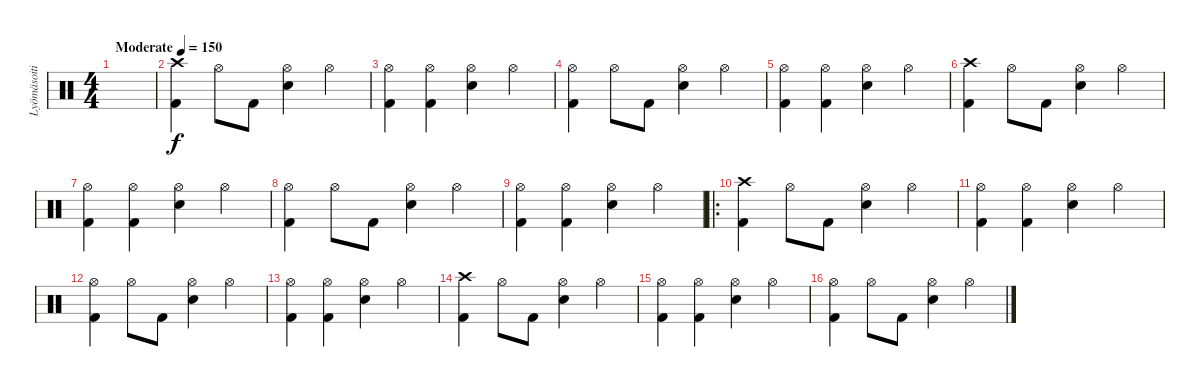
\track ("Lyömäsoitin" "Lyömäsoiti") {instrument percussion}
\staff {score}
\articulation defaults
\ts (4 4)
\tempo (150 "Moderate")
\clef neutral
\ks c
|
("Crash high (hit)" "Kick (hit) 2").4 "Hi-Hat (open)".8 "Kick (hit) 2".8 ("Hi-Hat (open)" "Snare (hit) 2").4 "Hi-Hat (open)".4 |
("Hi-Hat (open)" "Kick (hit) 2").4 ("Hi-Hat (open)" "Kick (hit) 2").4 ("Hi-Hat (open)" "Snare (hit) 2").4 "Hi-Hat (open)".4 |
("Hi-Hat (open)" "Kick (hit) 2").4 "Hi-Hat (open)".8 "Kick (hit) 2".8 ("Hi-Hat (open)" "Snare (hit) 2").4 "Hi-Hat (open)".4 |
("Hi-Hat (open)" "Kick (hit) 2").4 ("Hi-Hat (open)" "Kick (hit) 2").4 ("Hi-Hat (open)" "Snare (hit) 2").4 "Hi-Hat (open)".4 |
("Crash high (hit)" "Kick (hit) 2").4 "Hi-Hat (open)".8 "Kick (hit) 2".8 ("Hi-Hat (open)" "Snare (hit) 2").4 "Hi-Hat (open)".4 |
("Hi-Hat (open)" "Kick (hit) 2").4 ("Hi-Hat (open)" "Kick (hit) 2").4 ("Hi-Hat (open)" "Snare (hit) 2").4 "Hi-Hat (open)".4 |
("Hi-Hat (open)" "Kick (hit) 2").4 "Hi-Hat (open)".8 "Kick (hit) 2".8 ("Hi-Hat (open)" "Snare (hit) 2").4 "Hi-Hat (open)".4 |
("Hi-Hat (open)" "Kick (hit) 2").4 ("Hi-Hat (open)" "Kick (hit) 2").4 ("Hi-Hat (open)" "Snare (hit) 2").4 "Hi-Hat (open)".4 |
\ro
("Crash high (hit)" "Kick (hit) 2").4 "Hi-Hat (open)".8 "Kick (hit) 2".8 ("Hi-Hat (open)" "Snare (hit) 2").4 "Hi-Hat (open)".4 |
("Hi-Hat (open)" "Kick (hit) 2").4 ("Hi-Hat (open)" "Kick (hit) 2").4 ("Hi-Hat (open)" "Snare (hit) 2").4 "Hi-Hat (open)".4 |
("Hi-Hat (open)" "Kick (hit) 2").4 "Hi-Hat (open)".8 "Kick (hit) 2".8 ("Hi-Hat (open)" "Snare (hit) 2").4 "Hi-Hat (open)".4 |
("Hi-Hat (open)" "Kick (hit) 2").4 ("Hi-Hat (open)" "Kick (hit) 2").4 ("Hi-Hat (open)" "Snare (hit) 2").4 "Hi-Hat (open)".4 |
("Crash high (hit)" "Kick (hit) 2").4 "Hi-Hat (open)".8 "Kick (hit) 2".8 ("Hi-Hat (open)" "Snare (hit) 2").4 "Hi-Hat (open)".4 |
("Hi-Hat (open)" "Kick (hit) 2").4 ("Hi-Hat (open)" "Kick (hit) 2").4 ("Hi-Hat (open)" "Snare (hit) 2").4 "Hi-Hat (open)".4 |
("Hi-Hat (open)" "Kick (hit) 2").4 "Hi-Hat (open)".8 "Kick (hit) 2".8 ("Hi-Hat (open)" "Snare (hit) 2").4 "Hi-Hat (open)".4
